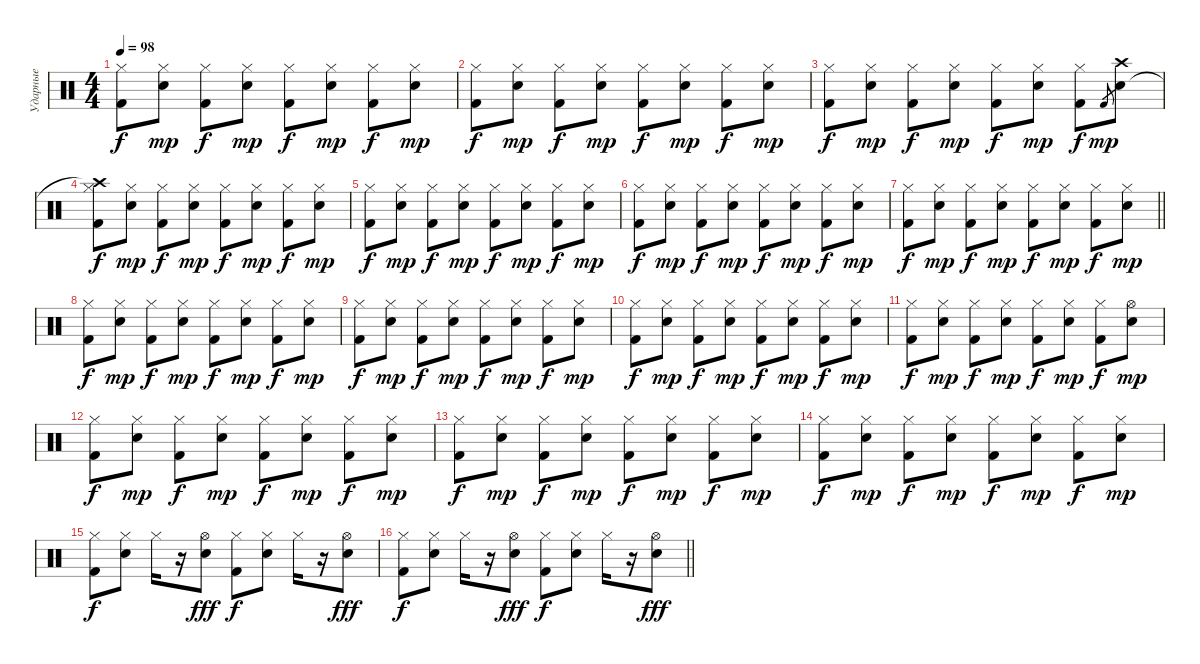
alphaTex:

\track ("Ударные" "Ударные") {instrument percussion}
\staff {score}
\articulation defaults
\ts (4 4)
\tempo 98
\clef neutral
\ks c
("Hi-Hat (closed)" "Kick (hit) 2").8{dy f} ("Hi-Hat (closed)" "Snare (hit) 2").8{dy mp} ("Hi-Hat (closed)" "Kick (hit) 2").8{dy f} ("Hi-Hat (closed)" "Snare (hit) 2").8{dy mp} ("Hi-Hat (closed)" "Kick (hit) 2").8{dy f} ("Hi-Hat (closed)" "Snare (hit) 2").8{dy mp} ("Hi-Hat (closed)" "Kick (hit) 2").8{dy f} ("Hi-Hat (closed)" "Snare (hit) 2").8{dy mp} |
("Hi-Hat (closed)" "Kick (hit) 2").8{dy f} ("Hi-Hat (closed)" "Snare (hit) 2").8{dy mp} ("Hi-Hat (closed)" "Kick (hit) 2").8{dy f} ("Hi-Hat (closed)" "Snare (hit) 2").8{dy mp} ("Hi-Hat (closed)" "Kick (hit) 2").8{dy f} ("Hi-Hat (closed)" "Snare (hit) 2").8{dy mp} ("Hi-Hat (closed)" "Kick (hit) 2").8{dy f} ("Hi-Hat (closed)" "Snare (hit) 2").8{dy mp} |
("Hi-Hat (closed)" "Kick (hit) 2").8{dy f} ("Hi-Hat (closed)" "Snare (hit) 2").8{dy mp} ("Hi-Hat (closed)" "Kick (hit) 2").8{dy f} ("Hi-Hat (closed)" "Snare (hit) 2").8{dy mp} ("Hi-Hat (closed)" "Kick (hit) 2").8{dy f} ("Hi-Hat (closed)" "Snare (hit) 2").8{dy mp} ("Hi-Hat (closed)" "Kick (hit) 2").8{dy f} "Kick (hit) 2".8{gr dy mp} ("Crash high (hit)" "Snare (hit) 2").8 |
("Hi-Hat (closed)" "Crash high (hit)"{t} "Kick (hit) 2").8{dy f} ("Hi-Hat (closed)" "Snare (hit) 2").8{dy mp} ("Hi-Hat (closed)" "Kick (hit) 2").8{dy f} ("Hi-Hat (closed)" "Snare (hit) 2").8{dy mp} ("Hi-Hat (closed)" "Kick (hit) 2").8{dy f} ("Hi-Hat (closed)" "Snare (hit) 2").8{dy mp} ("Hi-Hat (closed)" "Kick (hit) 2").8{dy f} ("Hi-Hat (closed)" "Snare (hit) 2").8{dy mp} |
("Hi-Hat (closed)" "Kick (hit) 2").8{dy f} ("Hi-Hat (closed)" "Snare (hit) 2").8{dy mp} ("Hi-Hat (closed)" "Kick (hit) 2").8{dy f} ("Hi-Hat (closed)" "Snare (hit) 2").8{dy mp} ("Hi-Hat (closed)" "Kick (hit) 2").8{dy f} ("Hi-Hat (closed)" "Snare (hit) 2").8{dy mp} ("Hi-Hat (closed)" "Kick (hit) 2").8{dy f} ("Hi-Hat (closed)" "Snare (hit) 2").8{dy mp} |
("Hi-Hat (closed)" "Kick (hit) 2").8{dy f} ("Hi-Hat (closed)" "Snare (hit) 2").8{dy mp} ("Hi-Hat (closed)" "Kick (hit) 2").8{dy f} ("Hi-Hat (closed)" "Snare (hit) 2").8{dy mp} ("Hi-Hat (closed)" "Kick (hit) 2").8{dy f} ("Hi-Hat (closed)" "Snare (hit) 2").8{dy mp} ("Hi-Hat (closed)" "Kick (hit) 2").8{dy f} ("Hi-Hat (closed)" "Snare (hit) 2").8{dy mp} |
\barLineRight lightlight
("Hi-Hat (closed)" "Kick (hit) 2").8{dy f} ("Hi-Hat (closed)" "Snare (hit) 2").8{dy mp} ("Hi-Hat (closed)" "Kick (hit) 2").8{dy f} ("Hi-Hat (closed)" "Snare (hit) 2").8{dy mp} ("Hi-Hat (closed)" "Kick (hit) 2").8{dy f} ("Hi-Hat (closed)" "Snare (hit) 2").8{dy mp} ("Hi-Hat (closed)" "Kick (hit) 2").8{dy f} ("Hi-Hat (closed)" "Snare (hit) 2").8{dy mp} |
("Hi-Hat (closed)" "Kick (hit) 2").8{dy f} ("Hi-Hat (closed)" "Snare (hit) 2").8{dy mp} ("Hi-Hat (closed)" "Kick (hit) 2").8{dy f} ("Hi-Hat (closed)" "Snare (hit) 2").8{dy mp} ("Hi-Hat (closed)" "Kick (hit) 2").8{dy f} ("Hi-Hat (closed)" "Snare (hit) 2").8{dy mp} ("Hi-Hat (closed)" "Kick (hit) 2").8{dy f} ("Hi-Hat (closed)" "Snare (hit) 2").8{dy mp} |
("Hi-Hat (closed)" "Kick (hit) 2").8{dy f} ("Hi-Hat (closed)" "Snare (hit) 2").8{dy mp} ("Hi-Hat (closed)" "Kick (hit) 2").8{dy f} ("Hi-Hat (closed)" "Snare (hit) 2").8{dy mp} ("Hi-Hat (closed)" "Kick (hit) 2").8{dy f} ("Hi-Hat (closed)" "Snare (hit) 2").8{dy mp} ("Hi-Hat (closed)" "Kick (hit) 2").8{dy f} ("Hi-Hat (closed)" "Snare (hit) 2").8{dy mp} |
("Hi-Hat (closed)" "Kick (hit) 2").8{dy f} ("Hi-Hat (closed)" "Snare (hit) 2").8{dy mp} ("Hi-Hat (closed)" "Kick (hit) 2").8{dy f} ("Hi-Hat (closed)" "Snare (hit) 2").8{dy mp} ("Hi-Hat (closed)" "Kick (hit) 2").8{dy f} ("Hi-Hat (closed)" "Snare (hit) 2").8{dy mp} ("Hi-Hat (closed)" "Kick (hit) 2").8{dy f} ("Hi-Hat (closed)" "Snare (hit) 2").8{dy mp} |
("Hi-Hat (closed)" "Kick (hit) 2").8{dy f} ("Hi-Hat (closed)" "Snare (hit) 2").8{dy mp} ("Hi-Hat (closed)" "Kick (hit) 2").8{dy f} ("Hi-Hat (closed)" "Snare (hit) 2").8{dy mp} ("Hi-Hat (closed)" "Kick (hit) 2").8{dy f} ("Hi-Hat (closed)" "Snare (hit) 2").8{dy mp} ("Hi-Hat (closed)" "Kick (hit) 2").8{dy f} ("Hi-Hat (open)" "Snare (hit) 2").8{dy mp} |
("Hi-Hat (closed)" "Kick (hit) 2").8{dy f} ("Hi-Hat (closed)" "Snare (hit) 2").8{dy mp} ("Hi-Hat (closed)" "Kick (hit) 2").8{dy f} ("Hi-Hat (closed)" "Snare (hit) 2").8{dy mp} ("Hi-Hat (closed)" "Kick (hit) 2").8{dy f} ("Hi-Hat (closed)" "Snare (hit) 2").8{dy mp} ("Hi-Hat (closed)" "Kick (hit) 2").8{dy f} ("Hi-Hat (closed)" "Snare (hit) 2").8{dy mp} |
("Hi-Hat (closed)" "Kick (hit) 2").8{dy f} ("Hi-Hat (closed)" "Snare (hit) 2").8{dy mp} ("Hi-Hat (closed)" "Kick (hit) 2").8{dy f} ("Hi-Hat (closed)" "Snare (hit) 2").8{dy mp} ("Hi-Hat (closed)" "Kick (hit) 2").8{dy f} ("Hi-Hat (closed)" "Snare (hit) 2").8{dy mp} ("Hi-Hat (closed)" "Kick (hit) 2").8{dy f} ("Hi-Hat (closed)" "Snare (hit) 2").8{dy mp} |
("Hi-Hat (closed)" "Kick (hit) 2").8{dy f} ("Hi-Hat (closed)" "Snare (hit) 2").8{dy mp} ("Hi-Hat (closed)" "Kick (hit) 2").8{dy f} ("Hi-Hat (closed)" "Snare (hit) 2").8{dy mp} ("Hi-Hat (closed)" "Kick (hit) 2").8{dy f} ("Hi-Hat (closed)" "Snare (hit) 2").8{dy mp} ("Hi-Hat (closed)" "Kick (hit) 2").8{dy f} ("Hi-Hat (closed)" "Snare (hit) 2").8{dy mp} |
("Hi-Hat (closed)" "Kick (hit) 2").8{dy f} ("Hi-Hat (closed)" "Snare (hit) 2").8 "Hi-Hat (closed)".16 r.16 ("Hi-Hat (open)" "Snare (hit) 2").8{dy fff} ("Hi-Hat (closed)" "Kick (hit) 2").8{dy f} ("Hi-Hat (closed)" "Snare (hit) 2").8 "Hi-Hat (closed)".16 r.16 ("Hi-Hat (open)" "Snare (hit) 2").8{dy fff} |
\barLineRight lightlight
("Hi-Hat (closed)" "Kick (hit) 2").8{dy f} ("Hi-Hat (closed)" "Snare (hit) 2").8 "Hi-Hat (closed)".16 r.16 ("Hi-Hat (open)" "Snare (hit) 2").8{dy fff} ("Hi-Hat (closed)" "Kick (hit) 2").8{dy f} ("Hi-Hat (closed)" "Snare (hit) 2").8 "Hi-Hat (closed)".16 r.16 ("Hi-Hat (open)" "Snare (hit) 2").8{dy fff}
